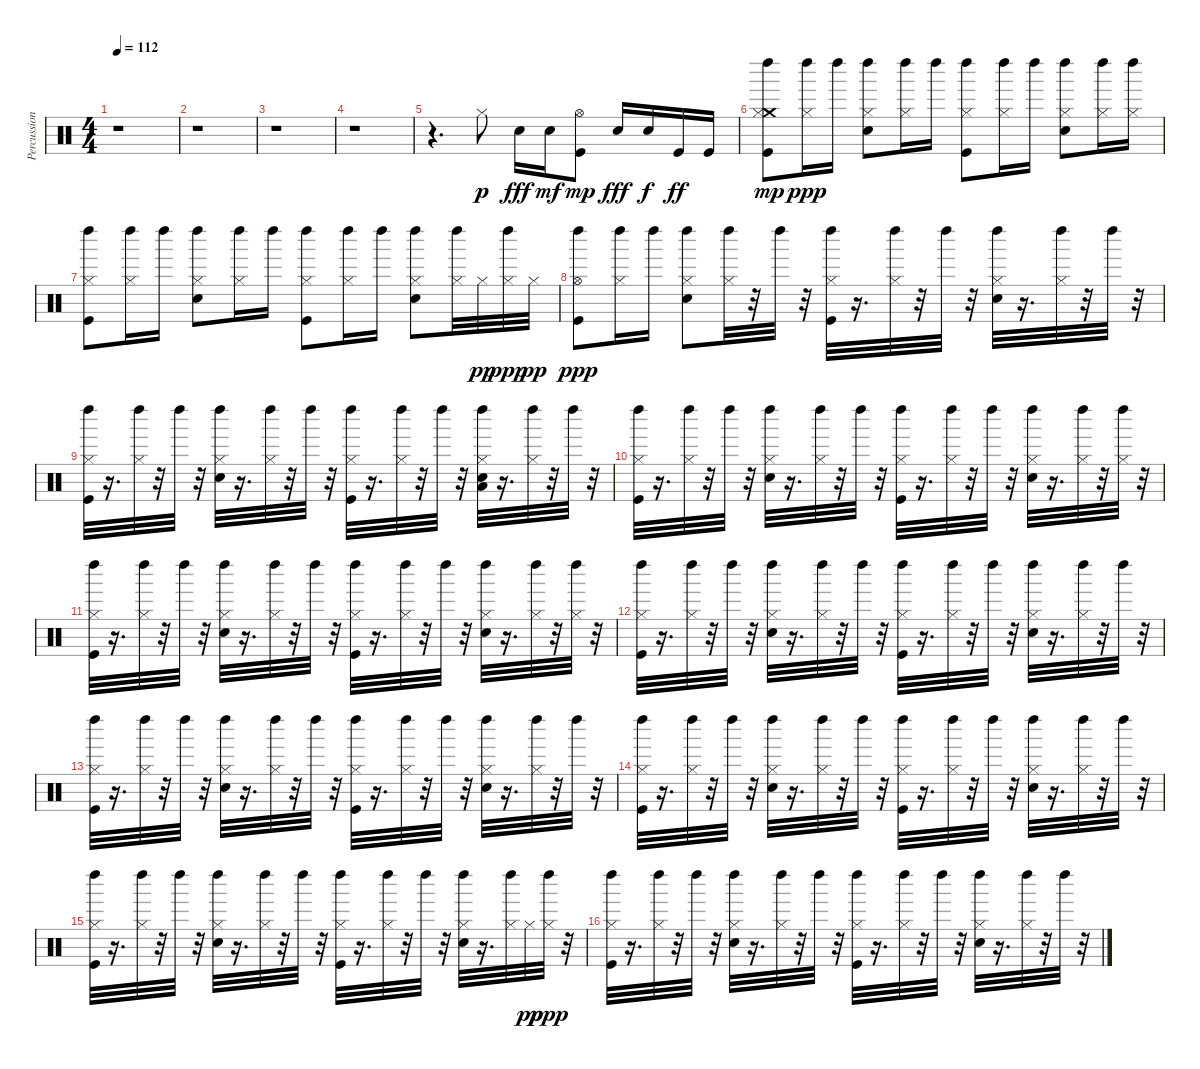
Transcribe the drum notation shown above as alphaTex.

\track ("Percussioni" "Percussion") {instrument percussion}
\staff {score}
\articulation defaults
\ts (4 4)
\tempo 112
\clef neutral
\ks c
r.1{dy p} |
r.1 |
r.1 |
r.1 |
r.4{d} "Hi-Hat (closed)".8 "Electric Snare (hit)".16{dy fff} "Electric Snare (hit)".16{dy mf} ("Kick (hit)" "Hi-Hat (open)").8{dy mp} "Electric Snare (hit)".16{dy fff} "Electric Snare (hit)".16{dy f} "Kick (hit)".16{dy ff} "Kick (hit)".16 |
("Kick (hit)" "Crash medium (hit)" "Left Maraca (hit)" "Hi-Hat (closed)").8{dy mp} ("Hi-Hat (closed)" "Left Maraca (hit)").16{dy ppp} "Left Maraca (hit)".16 ("Electric Snare (hit)" "Hi-Hat (closed)" "Left Maraca (hit)").8 ("Hi-Hat (closed)" "Left Maraca (hit)").16 "Left Maraca (hit)".16 ("Kick (hit)" "Hi-Hat (closed)" "Left Maraca (hit)").8 ("Hi-Hat (closed)" "Left Maraca (hit)").16 "Left Maraca (hit)".16 ("Electric Snare (hit)" "Hi-Hat (closed)" "Left Maraca (hit)").8 ("Hi-Hat (closed)" "Left Maraca (hit)").16 ("Hi-Hat (closed)" "Left Maraca (hit)").16 |
("Kick (hit)" "Hi-Hat (closed)" "Left Maraca (hit)").8 ("Hi-Hat (closed)" "Left Maraca (hit)").16 "Left Maraca (hit)".16 ("Electric Snare (hit)" "Hi-Hat (closed)" "Left Maraca (hit)").8 ("Hi-Hat (closed)" "Left Maraca (hit)").16 "Left Maraca (hit)".16 ("Kick (hit)" "Hi-Hat (closed)" "Left Maraca (hit)").8 ("Hi-Hat (closed)" "Left Maraca (hit)").16 "Left Maraca (hit)".16 ("Electric Snare (hit)" "Hi-Hat (closed)" "Left Maraca (hit)").8 ("Hi-Hat (closed)" "Left Maraca (hit)").32 "Hi-Hat (closed)".32{dy pp} ("Hi-Hat (closed)" "Left Maraca (hit)").32{dy ppp} "Hi-Hat (closed)".32{dy pp} |
("Kick (hit)" "Hi-Hat (open)" "Left Maraca (hit)").8{dy ppp} ("Hi-Hat (closed)" "Left Maraca (hit)").16 "Left Maraca (hit)".16 ("Electric Snare (hit)" "Hi-Hat (closed)" "Left Maraca (hit)").8 ("Hi-Hat (closed)" "Left Maraca (hit)").32 r.32 "Left Maraca (hit)".32 r.32 ("Kick (hit)" "Hi-Hat (closed)" "Left Maraca (hit)").32 r.16{d} ("Hi-Hat (closed)" "Left Maraca (hit)").32 r.32 "Left Maraca (hit)".32 r.32 ("Electric Snare (hit)" "Hi-Hat (closed)" "Left Maraca (hit)").32 r.16{d} ("Hi-Hat (closed)" "Left Maraca (hit)").32 r.32 "Left Maraca (hit)".32 r.32 |
("Kick (hit)" "Hi-Hat (closed)" "Left Maraca (hit)").32 r.16{d} ("Hi-Hat (closed)" "Left Maraca (hit)").32 r.32 "Left Maraca (hit)".32 r.32 ("Electric Snare (hit)" "Hi-Hat (closed)" "Left Maraca (hit)").32 r.16{d} ("Hi-Hat (closed)" "Left Maraca (hit)").32 r.32 "Left Maraca (hit)".32 r.32 ("Kick (hit)" "Hi-Hat (closed)" "Left Maraca (hit)").32 r.16{d} ("Hi-Hat (closed)" "Left Maraca (hit)").32 r.32 "Left Maraca (hit)".32 r.32 ("Electric Snare (hit)" "Low Floor Tom (hit)" "Hi-Hat (closed)" "Left Maraca (hit)").32 r.16{d} ("Hi-Hat (closed)" "Left Maraca (hit)").32 r.32 "Left Maraca (hit)".32 r.32 |
("Kick (hit)" "Hi-Hat (closed)" "Left Maraca (hit)").32 r.16{d} ("Hi-Hat (closed)" "Left Maraca (hit)").32 r.32 "Left Maraca (hit)".32 r.32 ("Electric Snare (hit)" "Hi-Hat (closed)" "Left Maraca (hit)").32 r.16{d} ("Hi-Hat (closed)" "Left Maraca (hit)").32 r.32 "Left Maraca (hit)".32 r.32 ("Kick (hit)" "Hi-Hat (closed)" "Left Maraca (hit)").32 r.16{d} ("Hi-Hat (closed)" "Left Maraca (hit)").32 r.32 "Left Maraca (hit)".32 r.32 ("Electric Snare (hit)" "Hi-Hat (closed)" "Left Maraca (hit)").32 r.16{d} ("Hi-Hat (closed)" "Left Maraca (hit)").32 r.32 ("Hi-Hat (closed)" "Left Maraca (hit)").32 r.32 |
("Kick (hit)" "Hi-Hat (closed)" "Left Maraca (hit)").32 r.16{d} ("Hi-Hat (closed)" "Left Maraca (hit)").32 r.32 "Left Maraca (hit)".32 r.32 ("Electric Snare (hit)" "Hi-Hat (closed)" "Left Maraca (hit)").32 r.16{d} ("Hi-Hat (closed)" "Left Maraca (hit)").32 r.32 "Left Maraca (hit)".32 r.32 ("Kick (hit)" "Hi-Hat (closed)" "Left Maraca (hit)").32 r.16{d} ("Hi-Hat (closed)" "Left Maraca (hit)").32 r.32 "Left Maraca (hit)".32 r.32 ("Electric Snare (hit)" "Hi-Hat (closed)" "Left Maraca (hit)").32 r.16{d} ("Hi-Hat (closed)" "Left Maraca (hit)").32 r.32 ("Hi-Hat (closed)" "Left Maraca (hit)").32 r.32 |
("Kick (hit)" "Hi-Hat (closed)" "Left Maraca (hit)").32 r.16{d} ("Hi-Hat (closed)" "Left Maraca (hit)").32 r.32 "Left Maraca (hit)".32 r.32 ("Electric Snare (hit)" "Hi-Hat (closed)" "Left Maraca (hit)").32 r.16{d} ("Hi-Hat (closed)" "Left Maraca (hit)").32 r.32 "Left Maraca (hit)".32 r.32 ("Kick (hit)" "Hi-Hat (closed)" "Left Maraca (hit)").32 r.16{d} ("Hi-Hat (closed)" "Left Maraca (hit)").32 r.32 "Left Maraca (hit)".32 r.32 ("Electric Snare (hit)" "Hi-Hat (closed)" "Left Maraca (hit)").32 r.16{d} ("Hi-Hat (closed)" "Left Maraca (hit)").32 r.32 "Left Maraca (hit)".32 r.32 |
("Kick (hit)" "Hi-Hat (closed)" "Left Maraca (hit)").32 r.16{d} ("Hi-Hat (closed)" "Left Maraca (hit)").32 r.32 "Left Maraca (hit)".32 r.32 ("Electric Snare (hit)" "Hi-Hat (closed)" "Left Maraca (hit)").32 r.16{d} ("Hi-Hat (closed)" "Left Maraca (hit)").32 r.32 "Left Maraca (hit)".32 r.32 ("Kick (hit)" "Hi-Hat (closed)" "Left Maraca (hit)").32 r.16{d} ("Hi-Hat (closed)" "Left Maraca (hit)").32 r.32 "Left Maraca (hit)".32 r.32 ("Electric Snare (hit)" "Hi-Hat (closed)" "Left Maraca (hit)").32 r.16{d} ("Hi-Hat (closed)" "Left Maraca (hit)").32 r.32 "Left Maraca (hit)".32 r.32 |
("Kick (hit)" "Hi-Hat (closed)" "Left Maraca (hit)").32 r.16{d} ("Hi-Hat (closed)" "Left Maraca (hit)").32 r.32 "Left Maraca (hit)".32 r.32 ("Electric Snare (hit)" "Hi-Hat (closed)" "Left Maraca (hit)").32 r.16{d} ("Hi-Hat (closed)" "Left Maraca (hit)").32 r.32 "Left Maraca (hit)".32 r.32 ("Kick (hit)" "Hi-Hat (closed)" "Left Maraca (hit)").32 r.16{d} ("Hi-Hat (closed)" "Left Maraca (hit)").32 r.32 "Left Maraca (hit)".32 r.32 ("Electric Snare (hit)" "Hi-Hat (closed)" "Left Maraca (hit)").32 r.16{d} ("Hi-Hat (closed)" "Left Maraca (hit)").32 r.32 "Left Maraca (hit)".32 r.32 |
("Kick (hit)" "Hi-Hat (closed)" "Left Maraca (hit)").32 r.16{d} ("Hi-Hat (closed)" "Left Maraca (hit)").32 r.32 "Left Maraca (hit)".32 r.32 ("Electric Snare (hit)" "Hi-Hat (closed)" "Left Maraca (hit)").32 r.16{d} ("Hi-Hat (closed)" "Left Maraca (hit)").32 r.32 "Left Maraca (hit)".32 r.32 ("Kick (hit)" "Hi-Hat (closed)" "Left Maraca (hit)").32 r.16{d} ("Hi-Hat (closed)" "Left Maraca (hit)").32 r.32 "Left Maraca (hit)".32 r.32 ("Electric Snare (hit)" "Hi-Hat (closed)" "Left Maraca (hit)").32 r.16{d} ("Hi-Hat (closed)" "Left Maraca (hit)").32 "Hi-Hat (closed)".32{dy pp} ("Hi-Hat (closed)" "Left Maraca (hit)").32{dy ppp} r.32 |
("Kick (hit)" "Hi-Hat (closed)" "Left Maraca (hit)").32 r.16{d} ("Hi-Hat (closed)" "Left Maraca (hit)").32 r.32 "Left Maraca (hit)".32 r.32 ("Electric Snare (hit)" "Hi-Hat (closed)" "Left Maraca (hit)").32 r.16{d} ("Hi-Hat (closed)" "Left Maraca (hit)").32 r.32 "Left Maraca (hit)".32 r.32 ("Kick (hit)" "Hi-Hat (closed)" "Left Maraca (hit)").32 r.16{d} ("Hi-Hat (closed)" "Left Maraca (hit)").32 r.32 "Left Maraca (hit)".32 r.32 ("Electric Snare (hit)" "Hi-Hat (closed)" "Left Maraca (hit)").32 r.16{d} ("Hi-Hat (closed)" "Left Maraca (hit)").32 r.32 "Left Maraca (hit)".32 r.32
